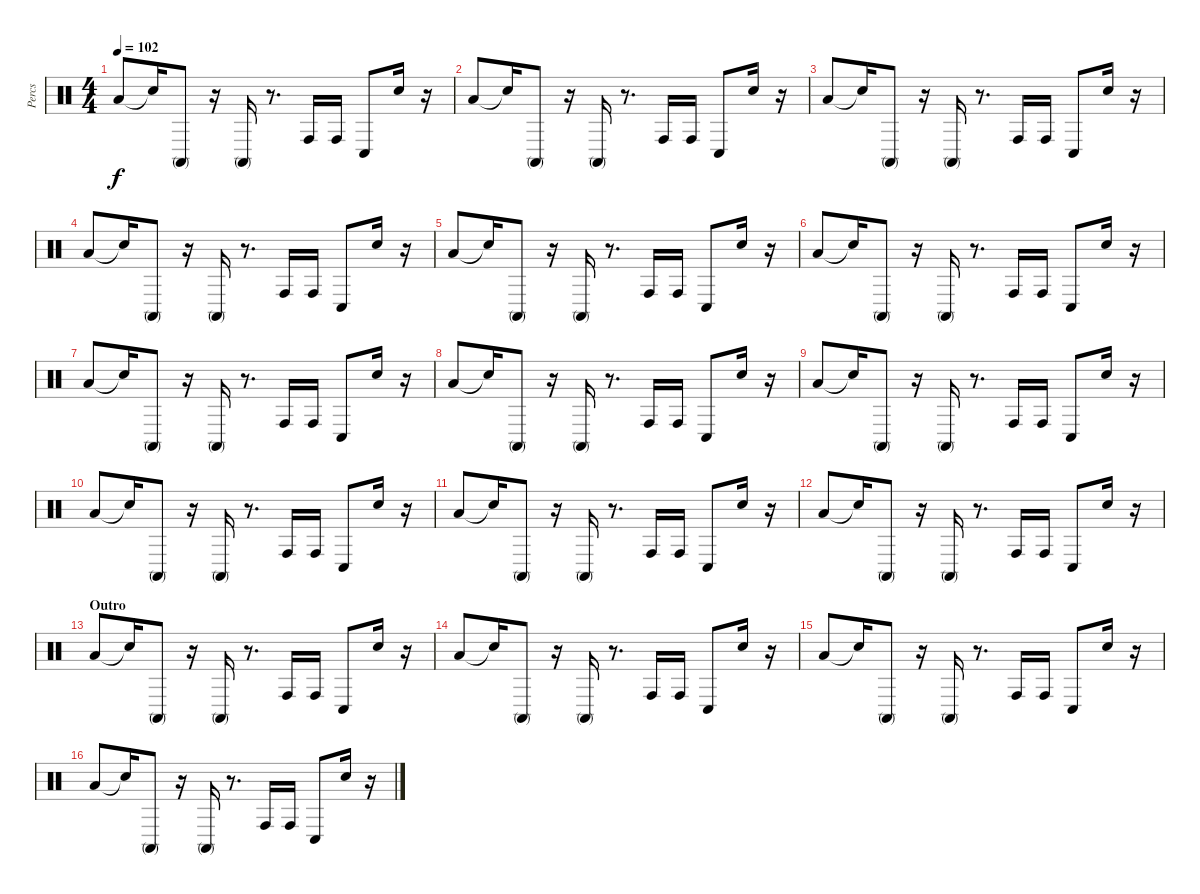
\track ("Percs" "Percs") {instrument percussion}
\staff {score}
\articulation defaults
\ts (4 4)
\tempo 102
\clef neutral
\ks c "Low Floor Tom (hit)".8{dy f} "Snare (hit)"{t}.16 "Conga high (mute)".8
r.16 "Conga high (mute)".16 r.8{d} "Conga high (hit)".16 "Conga high (hit)".16 "Conga low (hit)".8 "Hand Clap (hit)".16 r.16 |
"Low Floor Tom (hit)".8 "Snare (hit)"{t}.16 "Conga high (mute)".8 r.16 "Conga high (mute)".16 r.8{d} "Conga high (hit)".16 "Conga high (hit)".16 "Conga low (hit)".8 "Hand Clap (hit)".16 r.16 |
"Low Floor Tom (hit)".8 "Snare (hit)"{t}.16 "Conga high (mute)".8 r.16 "Conga high (mute)".16 r.8{d} "Conga high (hit)".16 "Conga high (hit)".16 "Conga low (hit)".8 "Hand Clap (hit)".16 r.16 |
"Low Floor Tom (hit)".8 "Snare (hit)"{t}.16 "Conga high (mute)".8 r.16 "Conga high (mute)".16 r.8{d} "Conga high (hit)".16 "Conga high (hit)".16 "Conga low (hit)".8 "Hand Clap (hit)".16 r.16 |
"Low Floor Tom (hit)".8 "Snare (hit)"{t}.16 "Conga high (mute)".8 r.16 "Conga high (mute)".16 r.8{d} "Conga high (hit)".16 "Conga high (hit)".16 "Conga low (hit)".8 "Hand Clap (hit)".16 r.16 |
"Low Floor Tom (hit)".8 "Snare (hit)"{t}.16 "Conga high (mute)".8 r.16 "Conga high (mute)".16 r.8{d} "Conga high (hit)".16 "Conga high (hit)".16 "Conga low (hit)".8 "Hand Clap (hit)".16 r.16 |
"Low Floor Tom (hit)".8 "Snare (hit)"{t}.16 "Conga high (mute)".8 r.16 "Conga high (mute)".16 r.8{d} "Conga high (hit)".16 "Conga high (hit)".16 "Conga low (hit)".8 "Hand Clap (hit)".16 r.16 |
"Low Floor Tom (hit)".8 "Snare (hit)"{t}.16 "Conga high (mute)".8 r.16 "Conga high (mute)".16 r.8{d} "Conga high (hit)".16 "Conga high (hit)".16 "Conga low (hit)".8 "Hand Clap (hit)".16 r.16 |
"Low Floor Tom (hit)".8 "Snare (hit)"{t}.16 "Conga high (mute)".8 r.16 "Conga high (mute)".16 r.8{d} "Conga high (hit)".16 "Conga high (hit)".16 "Conga low (hit)".8 "Hand Clap (hit)".16 r.16 |
"Low Floor Tom (hit)".8 "Snare (hit)"{t}.16 "Conga high (mute)".8 r.16 "Conga high (mute)".16 r.8{d} "Conga high (hit)".16 "Conga high (hit)".16 "Conga low (hit)".8 "Hand Clap (hit)".16 r.16 |
"Low Floor Tom (hit)".8 "Snare (hit)"{t}.16 "Conga high (mute)".8 r.16 "Conga high (mute)".16 r.8{d} "Conga high (hit)".16 "Conga high (hit)".16 "Conga low (hit)".8 "Hand Clap (hit)".16 r.16 |
"Low Floor Tom (hit)".8 "Snare (hit)"{t}.16 "Conga high (mute)".8 r.16 "Conga high (mute)".16 r.8{d} "Conga high (hit)".16 "Conga high (hit)".16 "Conga low (hit)".8 "Hand Clap (hit)".16 r.16 |
\section ("" "Outro")
"Low Floor Tom (hit)".8 "Snare (hit)"{t}.16 "Conga high (mute)".8 r.16 "Conga high (mute)".16 r.8{d} "Conga high (hit)".16 "Conga high (hit)".16 "Conga low (hit)".8 "Hand Clap (hit)".16 r.16 |
"Low Floor Tom (hit)".8 "Snare (hit)"{t}.16 "Conga high (mute)".8 r.16 "Conga high (mute)".16 r.8{d} "Conga high (hit)".16 "Conga high (hit)".16 "Conga low (hit)".8 "Hand Clap (hit)".16 r.16 |
"Low Floor Tom (hit)".8 "Snare (hit)"{t}.16 "Conga high (mute)".8 r.16 "Conga high (mute)".16 r.8{d} "Conga high (hit)".16 "Conga high (hit)".16 "Conga low (hit)".8 "Hand Clap (hit)".16 r.16 |
"Low Floor Tom (hit)".8 "Snare (hit)"{t}.16 "Conga high (mute)".8 r.16 "Conga high (mute)".16 r.8{d} "Conga high (hit)".16 "Conga high (hit)".16 "Conga low (hit)".8 "Hand Clap (hit)".16 r.16
